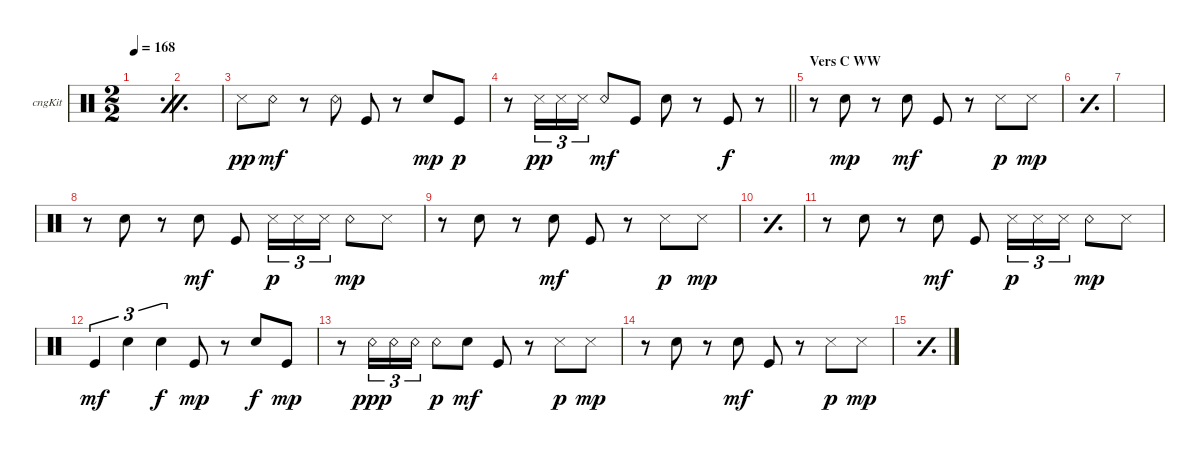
\bracketExtendMode groupsimilarinstruments
\multiTrackTrackNamePolicy hidden
\firstSystemTrackNameOrientation horizontal
\otherSystemsTrackNameOrientation horizontal
\track ("Congas" "cngKit") {instrument percussion}
\staff {score}
\articulation defaults
\ts (2 2)
\tempo 168
\clef neutral
\simile firstofdouble
\ks c
|
\simile secondofdouble
|
\simile none "Snare (side stick) 3".8{dy pp} "Snare (rim shot)".8{dy mf}
r.8 "Snare (rim shot)".8 "Kick (hit)".8 r.8 "Snare (hit) 2".8{dy mp} "Kick (hit)".8{dy p} |
\barLineRight lightlight
r.8 "Snare (side stick) 3".16{tu (3 2) dy pp} "Snare (side stick) 3".16{tu (3 2)} "Snare (side stick) 3".16{tu (3 2)} "Snare (rim shot)".8{dy mf} "Kick (hit)".8 "Snare (hit) 2".8 r.8 "Kick (hit)".8{dy f} r.8 |
\section ("" "Vers C WW")
r.8 "Snare (hit) 2".8{dy mp} r.8 "Snare (hit) 2".8{dy mf} "Kick (hit)".8 r.8 "Snare (side stick) 3".8{dy p} "Snare (side stick) 3".8{dy mp} |
\simile simple
|
|
\simile none
r.8 "Snare (hit) 2".8 r.8 "Snare (hit) 2".8{dy mf} "Kick (hit)".8 "Snare (side stick) 3".16{tu (3 2) dy p} "Snare (side stick) 3".16{tu (3 2)} "Snare (side stick) 3".16{tu (3 2)} "Snare (rim shot)".8{dy mp} "Snare (side stick) 3".8 |
r.8 "Snare (hit) 2".8 r.8 "Snare (hit) 2".8{dy mf} "Kick (hit)".8 r.8 "Snare (side stick) 3".8{dy p} "Snare (side stick) 3".8{dy mp} |
\simile simple
|
\simile none
r.8 "Snare (hit) 2".8 r.8 "Snare (hit) 2".8{dy mf} "Kick (hit)".8 "Snare (side stick) 3".16{tu (3 2) dy p} "Snare (side stick) 3".16{tu (3 2)} "Snare (side stick) 3".16{tu (3 2)} "Snare (rim shot)".8{dy mp} "Snare (side stick) 3".8 |
"Kick (hit)".4{tu (3 2) dy mf} "Snare (hit) 2".4{tu (3 2)} "Snare (hit) 2".4{tu (3 2) dy f} "Kick (hit)".8{dy mp} r.8 "Snare (hit) 2".8{dy f} "Kick (hit)".8{dy mp} |
r.8 "Snare (rim shot)".16{tu (3 2) dy ppp} "Snare (rim shot)".16{tu (3 2)} "Snare (rim shot)".16{tu (3 2)} "Snare (rim shot)".8{dy p} "Snare (hit) 2".8{dy mf} "Kick (hit)".8 r.8 "Snare (side stick) 3".8{dy p} "Snare (side stick) 3".8{dy mp} |
r.8 "Snare (hit) 2".8 r.8 "Snare (hit) 2".8{dy mf} "Kick (hit)".8 r.8 "Snare (side stick) 3".8{dy p} "Snare (side stick) 3".8{dy mp} |
\simile simple
